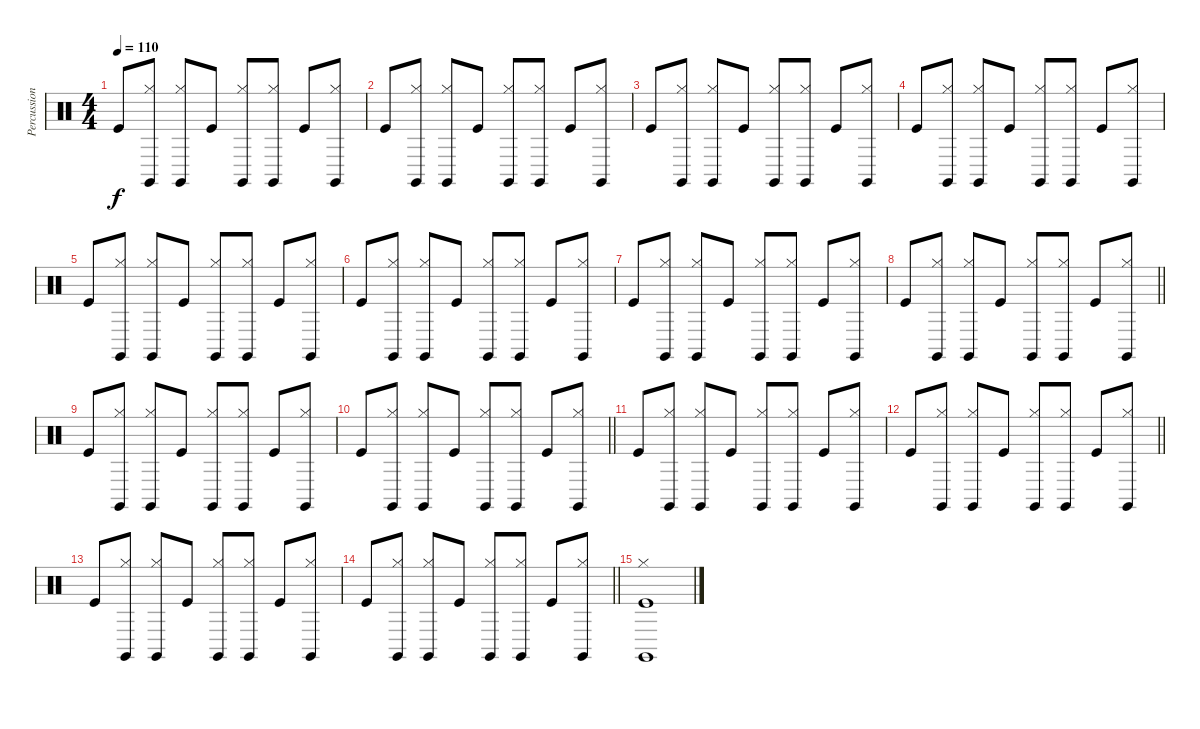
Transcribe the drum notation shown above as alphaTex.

\track ("Percussion" "Percussion") {instrument percussion}
\staff {score}
\articulation defaults
\ts (4 4)
\tempo 110
\clef neutral
\ks c "Kick (hit)".8{dy f}
("Claves (hit)" "Hi-Hat (closed)").8 ("Claves (hit)" "Hi-Hat (closed)").8 "Kick (hit)".8 ("Claves (hit)" "Hi-Hat (closed)").8 ("Claves (hit)" "Hi-Hat (closed)").8 "Kick (hit)".8 ("Claves (hit)" "Hi-Hat (closed)").8 |
"Kick (hit)".8 ("Claves (hit)" "Hi-Hat (closed)").8 ("Claves (hit)" "Hi-Hat (closed)").8 "Kick (hit)".8 ("Claves (hit)" "Hi-Hat (closed)").8 ("Claves (hit)" "Hi-Hat (closed)").8 "Kick (hit)".8 ("Claves (hit)" "Hi-Hat (closed)").8 |
"Kick (hit)".8 ("Claves (hit)" "Hi-Hat (closed)").8 ("Claves (hit)" "Hi-Hat (closed)").8 "Kick (hit)".8 ("Claves (hit)" "Hi-Hat (closed)").8 ("Claves (hit)" "Hi-Hat (closed)").8 "Kick (hit)".8 ("Claves (hit)" "Hi-Hat (closed)").8 |
"Kick (hit)".8 ("Claves (hit)" "Hi-Hat (closed)").8 ("Claves (hit)" "Hi-Hat (closed)").8 "Kick (hit)".8 ("Claves (hit)" "Hi-Hat (closed)").8 ("Claves (hit)" "Hi-Hat (closed)").8 "Kick (hit)".8 ("Claves (hit)" "Hi-Hat (closed)").8 |
"Kick (hit)".8 ("Claves (hit)" "Hi-Hat (closed)").8 ("Claves (hit)" "Hi-Hat (closed)").8 "Kick (hit)".8 ("Claves (hit)" "Hi-Hat (closed)").8 ("Claves (hit)" "Hi-Hat (closed)").8 "Kick (hit)".8 ("Claves (hit)" "Hi-Hat (closed)").8 |
"Kick (hit)".8 ("Claves (hit)" "Hi-Hat (closed)").8 ("Claves (hit)" "Hi-Hat (closed)").8 "Kick (hit)".8 ("Claves (hit)" "Hi-Hat (closed)").8 ("Claves (hit)" "Hi-Hat (closed)").8 "Kick (hit)".8 ("Claves (hit)" "Hi-Hat (closed)").8 |
"Kick (hit)".8 ("Claves (hit)" "Hi-Hat (closed)").8 ("Claves (hit)" "Hi-Hat (closed)").8 "Kick (hit)".8 ("Claves (hit)" "Hi-Hat (closed)").8 ("Claves (hit)" "Hi-Hat (closed)").8 "Kick (hit)".8 ("Claves (hit)" "Hi-Hat (closed)").8 |
\barLineRight lightlight "Kick (hit)".8
("Claves (hit)" "Hi-Hat (closed)").8 ("Claves (hit)" "Hi-Hat (closed)").8 "Kick (hit)".8 ("Claves (hit)" "Hi-Hat (closed)").8 ("Claves (hit)" "Hi-Hat (closed)").8 "Kick (hit)".8 ("Claves (hit)" "Hi-Hat (closed)").8 |
"Kick (hit)".8 ("Claves (hit)" "Hi-Hat (closed)").8 ("Claves (hit)" "Hi-Hat (closed)").8 "Kick (hit)".8 ("Claves (hit)" "Hi-Hat (closed)").8 ("Claves (hit)" "Hi-Hat (closed)").8 "Kick (hit)".8 ("Claves (hit)" "Hi-Hat (closed)").8 |
\barLineRight lightlight "Kick (hit)".8
("Claves (hit)" "Hi-Hat (closed)").8 ("Claves (hit)" "Hi-Hat (closed)").8 "Kick (hit)".8 ("Claves (hit)" "Hi-Hat (closed)").8 ("Claves (hit)" "Hi-Hat (closed)").8 "Kick (hit)".8 ("Claves (hit)" "Hi-Hat (closed)").8 |
"Kick (hit)".8 ("Claves (hit)" "Hi-Hat (closed)").8 ("Claves (hit)" "Hi-Hat (closed)").8 "Kick (hit)".8 ("Claves (hit)" "Hi-Hat (closed)").8 ("Claves (hit)" "Hi-Hat (closed)").8 "Kick (hit)".8 ("Claves (hit)" "Hi-Hat (closed)").8 |
\barLineRight lightlight "Kick (hit)".8
("Claves (hit)" "Hi-Hat (closed)").8 ("Claves (hit)" "Hi-Hat (closed)").8 "Kick (hit)".8 ("Claves (hit)" "Hi-Hat (closed)").8 ("Claves (hit)" "Hi-Hat (closed)").8 "Kick (hit)".8 ("Claves (hit)" "Hi-Hat (closed)").8 |
"Kick (hit)".8 ("Claves (hit)" "Hi-Hat (closed)").8 ("Claves (hit)" "Hi-Hat (closed)").8 "Kick (hit)".8 ("Claves (hit)" "Hi-Hat (closed)").8 ("Claves (hit)" "Hi-Hat (closed)").8 "Kick (hit)".8 ("Claves (hit)" "Hi-Hat (closed)").8 |
\barLineRight lightlight "Kick (hit)".8
("Claves (hit)" "Hi-Hat (closed)").8 ("Claves (hit)" "Hi-Hat (closed)").8 "Kick (hit)".8 ("Claves (hit)" "Hi-Hat (closed)").8 ("Claves (hit)" "Hi-Hat (closed)").8 "Kick (hit)".8 ("Claves (hit)" "Hi-Hat (closed)").8 |
("Claves (hit)" "Hi-Hat (closed)" "Kick (hit)").1
